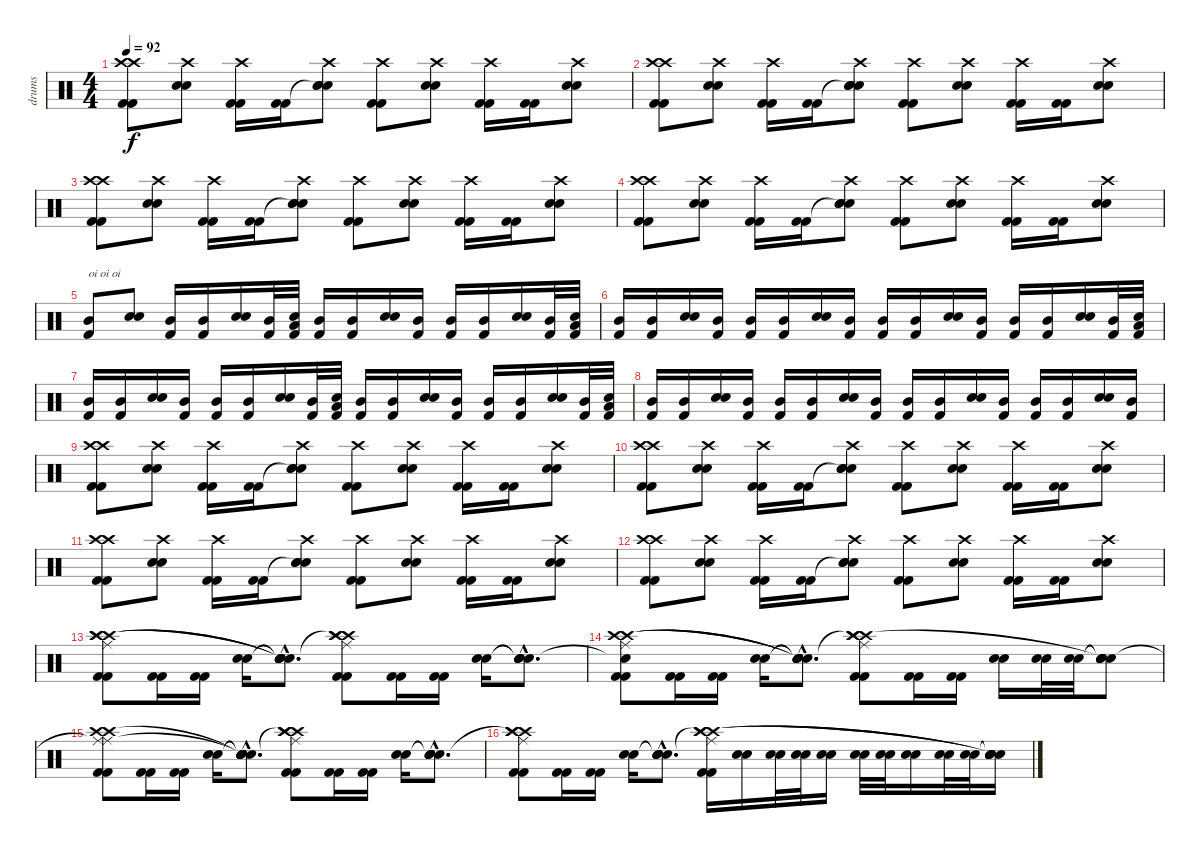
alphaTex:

\track ("drums" "drums") {instrument percussion}
\staff {score}
\articulation defaults
\ts (4 4)
\tempo 92
\clef neutral
\ks c
("Crash high (hit)" "Crash high (hit)" "Kick (hit) 2" "Kick (hit) 2").8{dy f} ("Crash high (hit)" "Electric Snare (hit)" "Electric Snare (hit)").8 ("Crash high (hit)" "Kick (hit) 2" "Kick (hit) 2").16 ("Kick (hit) 2" "Kick (hit) 2").16 ("Crash high (hit)" "Snare (hit)"{t} "Electric Snare (hit)" "Electric Snare (hit)").8 ("Crash high (hit)" "Kick (hit) 2" "Kick (hit) 2").8 ("Crash high (hit)" "Electric Snare (hit)" "Electric Snare (hit)").8 ("Crash high (hit)" "Kick (hit) 2" "Kick (hit) 2").16 ("Kick (hit) 2" "Kick (hit) 2").16 ("Crash high (hit)" "Electric Snare (hit)" "Electric Snare (hit)").8 |
("Crash high (hit)" "Crash high (hit)" "Kick (hit) 2" "Kick (hit) 2").8 ("Crash high (hit)" "Electric Snare (hit)" "Electric Snare (hit)").8 ("Crash high (hit)" "Kick (hit) 2" "Kick (hit) 2").16 ("Kick (hit) 2" "Kick (hit) 2").16 ("Crash high (hit)" "Snare (hit)"{t} "Electric Snare (hit)" "Electric Snare (hit)").8 ("Crash high (hit)" "Kick (hit) 2" "Kick (hit) 2").8 ("Crash high (hit)" "Electric Snare (hit)" "Electric Snare (hit)").8 ("Crash high (hit)" "Kick (hit) 2" "Kick (hit) 2").16 ("Kick (hit) 2" "Kick (hit) 2").16 ("Crash high (hit)" "Electric Snare (hit)" "Electric Snare (hit)").8 |
("Crash high (hit)" "Crash high (hit)" "Kick (hit) 2" "Kick (hit) 2").8 ("Crash high (hit)" "Electric Snare (hit)" "Electric Snare (hit)").8 ("Crash high (hit)" "Kick (hit) 2" "Kick (hit) 2").16 ("Kick (hit) 2" "Kick (hit) 2").16 ("Crash high (hit)" "Snare (hit)"{t} "Electric Snare (hit)" "Electric Snare (hit)").8 ("Crash high (hit)" "Kick (hit) 2" "Kick (hit) 2").8 ("Crash high (hit)" "Electric Snare (hit)" "Electric Snare (hit)").8 ("Crash high (hit)" "Kick (hit) 2" "Kick (hit) 2").16 ("Kick (hit) 2" "Kick (hit) 2").16 ("Crash high (hit)" "Electric Snare (hit)" "Electric Snare (hit)").8 |
("Crash high (hit)" "Crash high (hit)" "Kick (hit) 2" "Kick (hit) 2").8 ("Crash high (hit)" "Electric Snare (hit)" "Electric Snare (hit)").8 ("Crash high (hit)" "Kick (hit) 2" "Kick (hit) 2").16 ("Kick (hit) 2" "Kick (hit) 2").16 ("Crash high (hit)" "Snare (hit)"{t} "Electric Snare (hit)" "Electric Snare (hit)").8 ("Crash high (hit)" "Kick (hit) 2" "Kick (hit) 2").8 ("Crash high (hit)" "Electric Snare (hit)" "Electric Snare (hit)").8 ("Crash high (hit)" "Kick (hit) 2" "Kick (hit) 2").16 ("Kick (hit) 2" "Kick (hit) 2").16 ("Crash high (hit)" "Electric Snare (hit)" "Electric Snare (hit)").8 |
("Mid Tom (hit)" "Kick (hit) 2").8{txt "oi oi oi"} ("Electric Snare (hit)" "Electric Snare (hit)").8 ("Mid Tom (hit)" "Kick (hit) 2").16 ("Mid Tom (hit)" "Kick (hit) 2").16 ("Electric Snare (hit)" "Electric Snare (hit)").16 ("Mid Tom (hit)" "Kick (hit) 2").32 ("Low Tom (hit)" "Electric Snare (hit)" "Kick (hit) 2").32 ("Mid Tom (hit)" "Kick (hit) 2").16 ("Mid Tom (hit)" "Kick (hit) 2").16 ("Electric Snare (hit)" "Electric Snare (hit)").16 ("Mid Tom (hit)" "Kick (hit) 2").16 ("Mid Tom (hit)" "Kick (hit) 2").16 ("Mid Tom (hit)" "Kick (hit) 2").16 ("Electric Snare (hit)" "Electric Snare (hit)").16 ("Mid Tom (hit)" "Kick (hit) 2").32 ("Low Tom (hit)" "Electric Snare (hit)" "Kick (hit) 2").32 |
("Mid Tom (hit)" "Kick (hit) 2").16 ("Mid Tom (hit)" "Kick (hit) 2").16 ("Electric Snare (hit)" "Electric Snare (hit)").16 ("Mid Tom (hit)" "Kick (hit) 2").16 ("Mid Tom (hit)" "Kick (hit) 2").16 ("Mid Tom (hit)" "Kick (hit) 2").16 ("Electric Snare (hit)" "Electric Snare (hit)").16 ("Mid Tom (hit)" "Kick (hit) 2").16 ("Mid Tom (hit)" "Kick (hit) 2").16 ("Mid Tom (hit)" "Kick (hit) 2").16 ("Electric Snare (hit)" "Electric Snare (hit)").16 ("Mid Tom (hit)" "Kick (hit) 2").16 ("Mid Tom (hit)" "Kick (hit) 2").16 ("Mid Tom (hit)" "Kick (hit) 2").16 ("Electric Snare (hit)" "Electric Snare (hit)").16 ("Mid Tom (hit)" "Kick (hit) 2").32 ("Low Tom (hit)" "Electric Snare (hit)" "Kick (hit) 2").32 |
("Mid Tom (hit)" "Kick (hit) 2").16 ("Mid Tom (hit)" "Kick (hit) 2").16 ("Electric Snare (hit)" "Electric Snare (hit)").16 ("Mid Tom (hit)" "Kick (hit) 2").16 ("Mid Tom (hit)" "Kick (hit) 2").16 ("Mid Tom (hit)" "Kick (hit) 2").16 ("Electric Snare (hit)" "Electric Snare (hit)").16 ("Mid Tom (hit)" "Kick (hit) 2").32 ("Low Tom (hit)" "Electric Snare (hit)" "Kick (hit) 2").32 ("Mid Tom (hit)" "Kick (hit) 2").16 ("Mid Tom (hit)" "Kick (hit) 2").16 ("Electric Snare (hit)" "Electric Snare (hit)").16 ("Mid Tom (hit)" "Kick (hit) 2").16 ("Mid Tom (hit)" "Kick (hit) 2").16 ("Mid Tom (hit)" "Kick (hit) 2").16 ("Electric Snare (hit)" "Electric Snare (hit)").16 ("Mid Tom (hit)" "Kick (hit) 2").32 ("Low Tom (hit)" "Electric Snare (hit)" "Kick (hit) 2").32 |
("Mid Tom (hit)" "Kick (hit) 2").16 ("Mid Tom (hit)" "Kick (hit) 2").16 ("Electric Snare (hit)" "Electric Snare (hit)").16 ("Mid Tom (hit)" "Kick (hit) 2").16 ("Mid Tom (hit)" "Kick (hit) 2").16 ("Mid Tom (hit)" "Kick (hit) 2").16 ("Electric Snare (hit)" "Electric Snare (hit)").16 ("Mid Tom (hit)" "Kick (hit) 2").16 ("Mid Tom (hit)" "Kick (hit) 2").16 ("Mid Tom (hit)" "Kick (hit) 2").16 ("Electric Snare (hit)" "Electric Snare (hit)").16 ("Mid Tom (hit)" "Kick (hit) 2").16 ("Mid Tom (hit)" "Kick (hit) 2").16 ("Mid Tom (hit)" "Kick (hit) 2").16 ("Electric Snare (hit)" "Electric Snare (hit)").16 ("Mid Tom (hit)" "Kick (hit) 2").16 |
("Crash high (hit)" "Crash high (hit)" "Kick (hit) 2" "Kick (hit) 2").8 ("Crash high (hit)" "Electric Snare (hit)" "Electric Snare (hit)").8 ("Crash high (hit)" "Kick (hit) 2" "Kick (hit) 2").16 ("Kick (hit) 2" "Kick (hit) 2").16 ("Crash high (hit)" "Snare (hit)"{t} "Electric Snare (hit)" "Electric Snare (hit)").8 ("Crash high (hit)" "Kick (hit) 2" "Kick (hit) 2").8 ("Crash high (hit)" "Electric Snare (hit)" "Electric Snare (hit)").8 ("Crash high (hit)" "Kick (hit) 2" "Kick (hit) 2").16 ("Kick (hit) 2" "Kick (hit) 2").16 ("Crash high (hit)" "Electric Snare (hit)" "Electric Snare (hit)").8 |
("Crash high (hit)" "Crash high (hit)" "Kick (hit) 2" "Kick (hit) 2").8 ("Crash high (hit)" "Electric Snare (hit)" "Electric Snare (hit)").8 ("Crash high (hit)" "Kick (hit) 2" "Kick (hit) 2").16 ("Kick (hit) 2" "Kick (hit) 2").16 ("Crash high (hit)" "Snare (hit)"{t} "Electric Snare (hit)" "Electric Snare (hit)").8 ("Crash high (hit)" "Kick (hit) 2" "Kick (hit) 2").8 ("Crash high (hit)" "Electric Snare (hit)" "Electric Snare (hit)").8 ("Crash high (hit)" "Kick (hit) 2" "Kick (hit) 2").16 ("Kick (hit) 2" "Kick (hit) 2").16 ("Crash high (hit)" "Electric Snare (hit)" "Electric Snare (hit)").8 |
("Crash high (hit)" "Crash high (hit)" "Kick (hit) 2" "Kick (hit) 2").8 ("Crash high (hit)" "Electric Snare (hit)" "Electric Snare (hit)").8 ("Crash high (hit)" "Kick (hit) 2" "Kick (hit) 2").16 ("Kick (hit) 2" "Kick (hit) 2").16 ("Crash high (hit)" "Snare (hit)"{t} "Electric Snare (hit)" "Electric Snare (hit)").8 ("Crash high (hit)" "Kick (hit) 2" "Kick (hit) 2").8 ("Crash high (hit)" "Electric Snare (hit)" "Electric Snare (hit)").8 ("Crash high (hit)" "Kick (hit) 2" "Kick (hit) 2").16 ("Kick (hit) 2" "Kick (hit) 2").16 ("Crash high (hit)" "Electric Snare (hit)" "Electric Snare (hit)").8 |
("Crash high (hit)" "Crash high (hit)" "Kick (hit) 2" "Kick (hit) 2").8 ("Crash high (hit)" "Electric Snare (hit)" "Electric Snare (hit)").8 ("Crash high (hit)" "Kick (hit) 2" "Kick (hit) 2").16 ("Kick (hit) 2" "Kick (hit) 2").16 ("Crash high (hit)" "Snare (hit)"{t} "Electric Snare (hit)" "Electric Snare (hit)").8 ("Crash high (hit)" "Kick (hit) 2" "Kick (hit) 2").8 ("Crash high (hit)" "Electric Snare (hit)" "Electric Snare (hit)").8 ("Crash high (hit)" "Kick (hit) 2" "Kick (hit) 2").16 ("Kick (hit) 2" "Kick (hit) 2").16 ("Crash high (hit)" "Electric Snare (hit)" "Electric Snare (hit)").8 |
("Ride (middle)" "Crash high (hit)" "Crash high (hit)" "Crash high (hit)" "Kick (hit) 2" "Kick (hit) 2").8 ("Kick (hit) 2" "Kick (hit) 2").16 ("Kick (hit) 2" "Kick (hit) 2").16 ("Electric Snare (hit)" "Electric Snare (hit)").16 ("Snare (hit)"{hac t} "Snare (hit)"{hac t} "Snare (hit)"{hac t} "Snare (hit)"{hac t} "Electric Snare (hit)"{hac} "Electric Snare (hit)"{hac}).8{d} ("Ride (middle)" "Crash high (hit)" "Crash high (hit)" "Crash high (hit)"{t} "Kick (hit) 2" "Kick (hit) 2").8 ("Kick (hit) 2" "Kick (hit) 2").16 ("Kick (hit) 2" "Kick (hit) 2").16 ("Electric Snare (hit)" "Electric Snare (hit)").16 ("Snare (hit)"{hac t} "Snare (hit)"{hac t} "Electric Snare (hit)"{hac} "Electric Snare (hit)"{hac}).8{d} |
("Ride (middle)" "Snare (hit)"{t} "Crash high (hit)" "Crash high (hit)" "Kick (hit) 2" "Kick (hit) 2").8 ("Kick (hit) 2" "Kick (hit) 2").16 ("Kick (hit) 2" "Kick (hit) 2").16 ("Electric Snare (hit)" "Electric Snare (hit)").16 ("Snare (hit)"{hac t} "Snare (hit)"{hac t} "Snare (hit)"{hac t} "Snare (hit)"{hac t} "Electric Snare (hit)"{hac} "Electric Snare (hit)"{hac}).8{d} ("Ride (middle)" "Crash high (hit)" "Crash high (hit)"{t} "Crash high (hit)" "Kick (hit) 2" "Kick (hit) 2").8 ("Kick (hit) 2" "Kick (hit) 2").16 ("Kick (hit) 2" "Kick (hit) 2").16 ("Electric Snare (hit)" "Electric Snare (hit)").16 ("Electric Snare (hit)" "Electric Snare (hit)").32 ("Electric Snare (hit)" "Electric Snare (hit)").32 ("Snare (hit)"{t} "Snare (hit)"{t} "Snare (hit)"{t} "Electric Snare (hit)" "Electric Snare (hit)").8 |
("Ride (middle)"{t} "Crash high (hit)" "Ride (middle)" "Crash high (hit)" "Kick (hit) 2" "Kick (hit) 2").8 ("Kick (hit) 2" "Kick (hit) 2").16 ("Kick (hit) 2" "Kick (hit) 2").16 ("Electric Snare (hit)" "Electric Snare (hit)").16 ("Snare (hit)"{hac t} "Snare (hit)"{hac t} "Snare (hit)"{hac t} "Snare (hit)"{hac t} "Electric Snare (hit)"{hac} "Electric Snare (hit)"{hac}).8{d} ("Ride (middle)" "Crash high (hit)" "Crash high (hit)" "Crash high (hit)"{t} "Kick (hit) 2" "Kick (hit) 2").8 ("Kick (hit) 2" "Kick (hit) 2").16 ("Kick (hit) 2" "Kick (hit) 2").16 ("Electric Snare (hit)" "Electric Snare (hit)").16 ("Snare (hit)"{hac t} "Snare (hit)"{hac t} "Electric Snare (hit)"{hac} "Electric Snare (hit)"{hac}).8{d} |
("Ride (middle)" "Crash high (hit)" "Crash high (hit)"{t} "Crash high (hit)" "Kick (hit) 2" "Kick (hit) 2").8 ("Kick (hit) 2" "Kick (hit) 2").16 ("Kick (hit) 2" "Kick (hit) 2").16 ("Electric Snare (hit)" "Electric Snare (hit)").16 ("Snare (hit)"{hac t} "Snare (hit)"{hac t} "Electric Snare (hit)"{hac} "Electric Snare (hit)"{hac}).8{d} ("Ride (middle)" "Crash high (hit)"{t} "Crash high (hit)" "Crash high (hit)" "Kick (hit) 2" "Kick (hit) 2").16 ("Electric Snare (hit)" "Electric Snare (hit)").16 ("Electric Snare (hit)" "Electric Snare (hit)").32 ("Electric Snare (hit)" "Electric Snare (hit)").32 ("Electric Snare (hit)" "Electric Snare (hit)").16 ("Electric Snare (hit)" "Electric Snare (hit)").32 ("Electric Snare (hit)" "Electric Snare (hit)").32 ("Electric Snare (hit)" "Electric Snare (hit)").16 ("Electric Snare (hit)" "Electric Snare (hit)").32 ("Electric Snare (hit)" "Electric Snare (hit)").32 ("Snare (hit)"{t} "Snare (hit)"{t} "Snare (hit)"{t} "Electric Snare (hit)"{t} "Electric Snare (hit)" "Electric Snare (hit)").16
